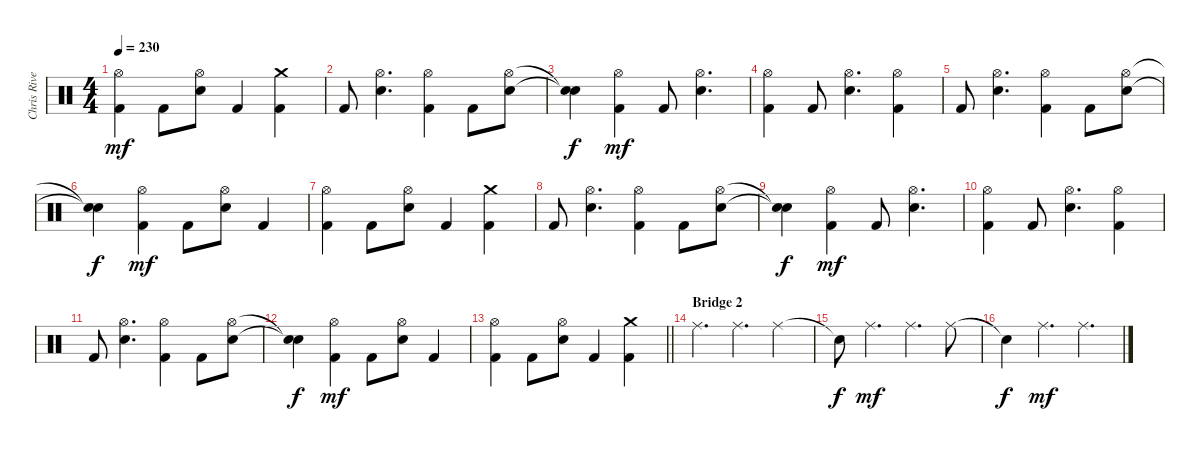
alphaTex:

\track ("Chris Rivers" "Chris Rive") {instrument percussion}
\staff {score}
\articulation defaults
\ts (4 4)
\tempo 230
\clef neutral
\ks c
("Hi-Hat (open)" "Kick (hit) 2").4{dy mf} "Kick (hit) 2".8 ("Hi-Hat (open)" "Electric Snare (hit)").8 "Kick (hit) 2".4 ("Crash medium (hit)" "Kick (hit) 2").4 |
"Kick (hit) 2".8 ("Hi-Hat (open)" "Electric Snare (hit)").4{d} ("Hi-Hat (open)" "Kick (hit) 2").4 "Kick (hit) 2".8 ("Hi-Hat (open)" "Electric Snare (hit)").8 |
("Snare (hit)"{t} "Snare (hit)"{t}).4{dy f} ("Hi-Hat (open)" "Kick (hit) 2").4{dy mf} "Kick (hit) 2".8 ("Hi-Hat (open)" "Electric Snare (hit)").4{d} |
("Hi-Hat (open)" "Kick (hit) 2").4 "Kick (hit) 2".8 ("Hi-Hat (open)" "Electric Snare (hit)").4{d} ("Hi-Hat (open)" "Kick (hit) 2").4 |
"Kick (hit) 2".8 ("Hi-Hat (open)" "Electric Snare (hit)").4{d} ("Hi-Hat (open)" "Kick (hit) 2").4 "Kick (hit) 2".8 ("Hi-Hat (open)" "Electric Snare (hit)").8 |
("Snare (hit)"{t} "Snare (hit)"{t}).4{dy f} ("Hi-Hat (open)" "Kick (hit) 2").4{dy mf} "Kick (hit) 2".8 ("Hi-Hat (open)" "Electric Snare (hit)").8 "Kick (hit) 2".4 |
("Hi-Hat (open)" "Kick (hit) 2").4 "Kick (hit) 2".8 ("Hi-Hat (open)" "Electric Snare (hit)").8 "Kick (hit) 2".4 ("Crash medium (hit)" "Kick (hit) 2").4 |
"Kick (hit) 2".8 ("Hi-Hat (open)" "Electric Snare (hit)").4{d} ("Hi-Hat (open)" "Kick (hit) 2").4 "Kick (hit) 2".8 ("Hi-Hat (open)" "Electric Snare (hit)").8 |
("Snare (hit)"{t} "Snare (hit)"{t}).4{dy f} ("Hi-Hat (open)" "Kick (hit) 2").4{dy mf} "Kick (hit) 2".8 ("Hi-Hat (open)" "Electric Snare (hit)").4{d} |
("Hi-Hat (open)" "Kick (hit) 2").4 "Kick (hit) 2".8 ("Hi-Hat (open)" "Electric Snare (hit)").4{d} ("Hi-Hat (open)" "Kick (hit) 2").4 |
"Kick (hit) 2".8 ("Hi-Hat (open)" "Electric Snare (hit)").4{d} ("Hi-Hat (open)" "Kick (hit) 2").4 "Kick (hit) 2".8 ("Hi-Hat (open)" "Electric Snare (hit)").8 |
("Snare (hit)"{t} "Snare (hit)"{t}).4{dy f} ("Hi-Hat (open)" "Kick (hit) 2").4{dy mf} "Kick (hit) 2".8 ("Hi-Hat (open)" "Electric Snare (hit)").8 "Kick (hit) 2".4 |
\barLineRight lightlight
("Hi-Hat (open)" "Kick (hit) 2").4 "Kick (hit) 2".8 ("Hi-Hat (open)" "Electric Snare (hit)").8 "Kick (hit) 2".4 ("Crash medium (hit)" "Kick (hit) 2").4 |
\section ("" "Bridge 2")
"Ride (middle)".4{d} "Ride (middle)".4{d} "Ride (middle)".4 |
"Snare (hit)"{t}.8{dy f} "Ride (middle)".4{d dy mf} "Ride (middle)".4{d} "Ride (middle)".8 |
"Snare (hit)"{t}.4{dy f} "Ride (middle)".4{d dy mf} "Ride (middle)".4{d}
